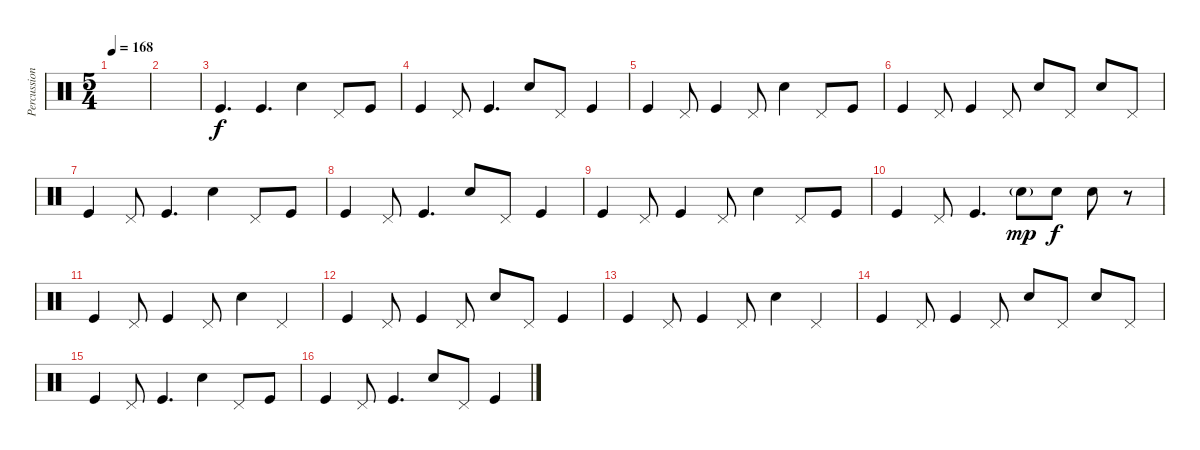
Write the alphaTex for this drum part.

\track ("Percussion" "Percussion") {instrument percussion}
\staff {score}
\articulation defaults
\ts (5 4)
\tempo 168
\clef neutral
\ks c
|
|
"Kick (hit)".4{d} "Kick (hit)".4{d} "Snare (hit) 2".4 "Pedal Hi-Hat (hit)".8 "Kick (hit)".8 |
"Kick (hit)".4 "Pedal Hi-Hat (hit)".8 "Kick (hit)".4{d} "Snare (hit) 2".8 "Pedal Hi-Hat (hit)".8 "Kick (hit)".4 |
"Kick (hit)".4 "Pedal Hi-Hat (hit)".8 "Kick (hit)".4 "Pedal Hi-Hat (hit)".8 "Snare (hit) 2".4 "Pedal Hi-Hat (hit)".8 "Kick (hit)".8 |
"Kick (hit)".4 "Pedal Hi-Hat (hit)".8 "Kick (hit)".4 "Pedal Hi-Hat (hit)".8 "Snare (hit) 2".8 "Pedal Hi-Hat (hit)".8 "Snare (hit) 2".8 "Pedal Hi-Hat (hit)".8 |
"Kick (hit)".4 "Pedal Hi-Hat (hit)".8 "Kick (hit)".4{d} "Snare (hit) 2".4 "Pedal Hi-Hat (hit)".8 "Kick (hit)".8 |
"Kick (hit)".4 "Pedal Hi-Hat (hit)".8 "Kick (hit)".4{d} "Snare (hit) 2".8 "Pedal Hi-Hat (hit)".8 "Kick (hit)".4 |
"Kick (hit)".4 "Pedal Hi-Hat (hit)".8 "Kick (hit)".4 "Pedal Hi-Hat (hit)".8 "Snare (hit) 2".4 "Pedal Hi-Hat (hit)".8 "Kick (hit)".8 |
"Kick (hit)".4 "Pedal Hi-Hat (hit)".8 "Kick (hit)".4{d} "Snare (hit) 2"{g}.8{dy mp} "Snare (hit) 2".8{dy f} "Snare (hit) 2".8 r.8 |
"Kick (hit)".4 "Pedal Hi-Hat (hit)".8 "Kick (hit)".4 "Pedal Hi-Hat (hit)".8 "Snare (hit) 2".4 "Pedal Hi-Hat (hit)".4 |
"Kick (hit)".4 "Pedal Hi-Hat (hit)".8 "Kick (hit)".4 "Pedal Hi-Hat (hit)".8 "Snare (hit) 2".8 "Pedal Hi-Hat (hit)".8 "Kick (hit)".4 |
"Kick (hit)".4 "Pedal Hi-Hat (hit)".8 "Kick (hit)".4 "Pedal Hi-Hat (hit)".8 "Snare (hit) 2".4 "Pedal Hi-Hat (hit)".4 |
"Kick (hit)".4 "Pedal Hi-Hat (hit)".8 "Kick (hit)".4 "Pedal Hi-Hat (hit)".8 "Snare (hit) 2".8 "Pedal Hi-Hat (hit)".8 "Snare (hit) 2".8 "Pedal Hi-Hat (hit)".8 |
"Kick (hit)".4 "Pedal Hi-Hat (hit)".8 "Kick (hit)".4{d} "Snare (hit) 2".4 "Pedal Hi-Hat (hit)".8 "Kick (hit)".8 |
"Kick (hit)".4 "Pedal Hi-Hat (hit)".8 "Kick (hit)".4{d} "Snare (hit) 2".8 "Pedal Hi-Hat (hit)".8 "Kick (hit)".4
